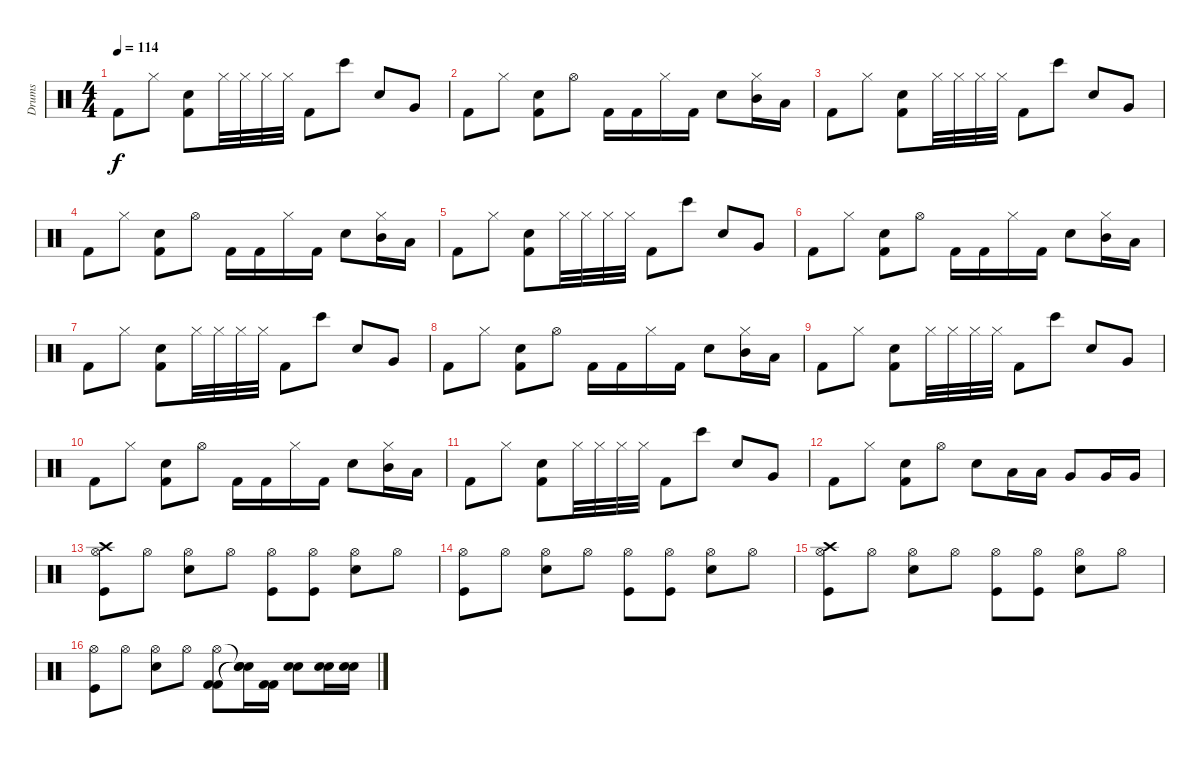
\track ("Drums               " "Drums     ") {instrument percussion}
\staff {score}
\articulation defaults
\ts (4 4)
\tempo 114
\clef neutral
\ks c "Kick (hit) 2".8{dy f} "Hi-Hat (closed)".8
("Snare (hit) 2" "Kick (hit) 2").8 "Hi-Hat (closed)".32 "Hi-Hat (closed)".32 "Hi-Hat (closed)".32 "Hi-Hat (closed)".32 "Kick (hit) 2".8 "Bongo High (hit)".8 "Snare (hit) 2".8 "Very Low Tom (hit)".8 |
"Kick (hit) 2".8 "Hi-Hat (closed)".8 ("Snare (hit) 2" "Kick (hit) 2").8 "Hi-Hat (open)".8 "Kick (hit) 2".16 "Kick (hit) 2".16 "Hi-Hat (closed)".16 "Kick (hit) 2".16 "Snare (hit) 2".8 ("Hi-Hat (closed)" "Mid Tom (hit)").16 "Low Tom (hit)".16 |
"Kick (hit) 2".8 "Hi-Hat (closed)".8 ("Snare (hit) 2" "Kick (hit) 2").8 "Hi-Hat (closed)".32 "Hi-Hat (closed)".32 "Hi-Hat (closed)".32 "Hi-Hat (closed)".32 "Kick (hit) 2".8 "Bongo High (hit)".8 "Snare (hit) 2".8 "Very Low Tom (hit)".8 |
"Kick (hit) 2".8 "Hi-Hat (closed)".8 ("Snare (hit) 2" "Kick (hit) 2").8 "Hi-Hat (open)".8 "Kick (hit) 2".16 "Kick (hit) 2".16 "Hi-Hat (closed)".16 "Kick (hit) 2".16 "Snare (hit) 2".8 ("Hi-Hat (closed)" "Mid Tom (hit)").16 "Low Tom (hit)".16 |
"Kick (hit) 2".8 "Hi-Hat (closed)".8 ("Snare (hit) 2" "Kick (hit) 2").8 "Hi-Hat (closed)".32 "Hi-Hat (closed)".32 "Hi-Hat (closed)".32 "Hi-Hat (closed)".32 "Kick (hit) 2".8 "Bongo High (hit)".8 "Snare (hit) 2".8 "Very Low Tom (hit)".8 |
"Kick (hit) 2".8 "Hi-Hat (closed)".8 ("Snare (hit) 2" "Kick (hit) 2").8 "Hi-Hat (open)".8 "Kick (hit) 2".16 "Kick (hit) 2".16 "Hi-Hat (closed)".16 "Kick (hit) 2".16 "Snare (hit) 2".8 ("Hi-Hat (closed)" "Mid Tom (hit)").16 "Low Tom (hit)".16 |
"Kick (hit) 2".8 "Hi-Hat (closed)".8 ("Snare (hit) 2" "Kick (hit) 2").8 "Hi-Hat (closed)".32 "Hi-Hat (closed)".32 "Hi-Hat (closed)".32 "Hi-Hat (closed)".32 "Kick (hit) 2".8 "Bongo High (hit)".8 "Snare (hit) 2".8 "Very Low Tom (hit)".8 |
"Kick (hit) 2".8 "Hi-Hat (closed)".8 ("Snare (hit) 2" "Kick (hit) 2").8 "Hi-Hat (open)".8 "Kick (hit) 2".16 "Kick (hit) 2".16 "Hi-Hat (closed)".16 "Kick (hit) 2".16 "Snare (hit) 2".8 ("Hi-Hat (closed)" "Mid Tom (hit)").16 "Low Tom (hit)".16 |
"Kick (hit) 2".8 "Hi-Hat (closed)".8 ("Snare (hit) 2" "Kick (hit) 2").8 "Hi-Hat (closed)".32 "Hi-Hat (closed)".32 "Hi-Hat (closed)".32 "Hi-Hat (closed)".32 "Kick (hit) 2".8 "Bongo High (hit)".8 "Snare (hit) 2".8 "Very Low Tom (hit)".8 |
"Kick (hit) 2".8 "Hi-Hat (closed)".8 ("Snare (hit) 2" "Kick (hit) 2").8 "Hi-Hat (open)".8 "Kick (hit) 2".16 "Kick (hit) 2".16 "Hi-Hat (closed)".16 "Kick (hit) 2".16 "Snare (hit) 2".8 ("Hi-Hat (closed)" "Mid Tom (hit)").16 "Low Tom (hit)".16 |
"Kick (hit) 2".8 "Hi-Hat (closed)".8 ("Snare (hit) 2" "Kick (hit) 2").8 "Hi-Hat (closed)".32 "Hi-Hat (closed)".32 "Hi-Hat (closed)".32 "Hi-Hat (closed)".32 "Kick (hit) 2".8 "Bongo High (hit)".8 "Snare (hit) 2".8 "Very Low Tom (hit)".8 |
"Kick (hit) 2".8 "Hi-Hat (closed)".8 ("Snare (hit) 2" "Kick (hit) 2").8 "Hi-Hat (open)".8 "Snare (hit) 2".8 "Low Tom (hit)".16 "Low Tom (hit)".16 "Very Low Tom (hit)".8 "Very Low Tom (hit)".16 "Very Low Tom (hit)".16 |
("Kick (hit)" "Hi-Hat (open)" "Crash high (hit)").8 "Hi-Hat (open)".8 ("Snare (hit) 2" "Hi-Hat (open)").8 "Hi-Hat (open)".8 ("Kick (hit)" "Hi-Hat (open)").8 ("Kick (hit)" "Hi-Hat (open)").8 ("Snare (hit) 2" "Hi-Hat (open)").8 "Hi-Hat (open)".8 |
("Kick (hit)" "Hi-Hat (open)").8 "Hi-Hat (open)".8 ("Snare (hit) 2" "Hi-Hat (open)").8 "Hi-Hat (open)".8 ("Kick (hit)" "Hi-Hat (open)").8 ("Kick (hit)" "Hi-Hat (open)").8 ("Snare (hit) 2" "Hi-Hat (open)").8 "Hi-Hat (open)".8 |
("Kick (hit)" "Hi-Hat (open)" "Crash high (hit)").8 "Hi-Hat (open)".8 ("Snare (hit) 2" "Hi-Hat (open)").8 "Hi-Hat (open)".8 ("Kick (hit)" "Hi-Hat (open)").8 ("Kick (hit)" "Hi-Hat (open)").8 ("Snare (hit) 2" "Hi-Hat (open)").8 "Hi-Hat (open)".8 |
("Kick (hit)" "Hi-Hat (open)").8 "Hi-Hat (open)".8 ("Snare (hit) 2" "Hi-Hat (open)").8 "Hi-Hat (open)".8 ("Kick (hit) 2" "Kick (hit) 2" "Hi-Hat (open)").8 ("Snare (hit)"{t} "Snare (hit)"{t} "Snare (hit)"{t}).16 ("Kick (hit) 2" "Kick (hit) 2").16 ("Snare (hit) 2" "Snare (hit) 2").8 ("Snare (hit) 2" "Snare (hit) 2").16 ("Snare (hit) 2" "Snare (hit) 2").16
